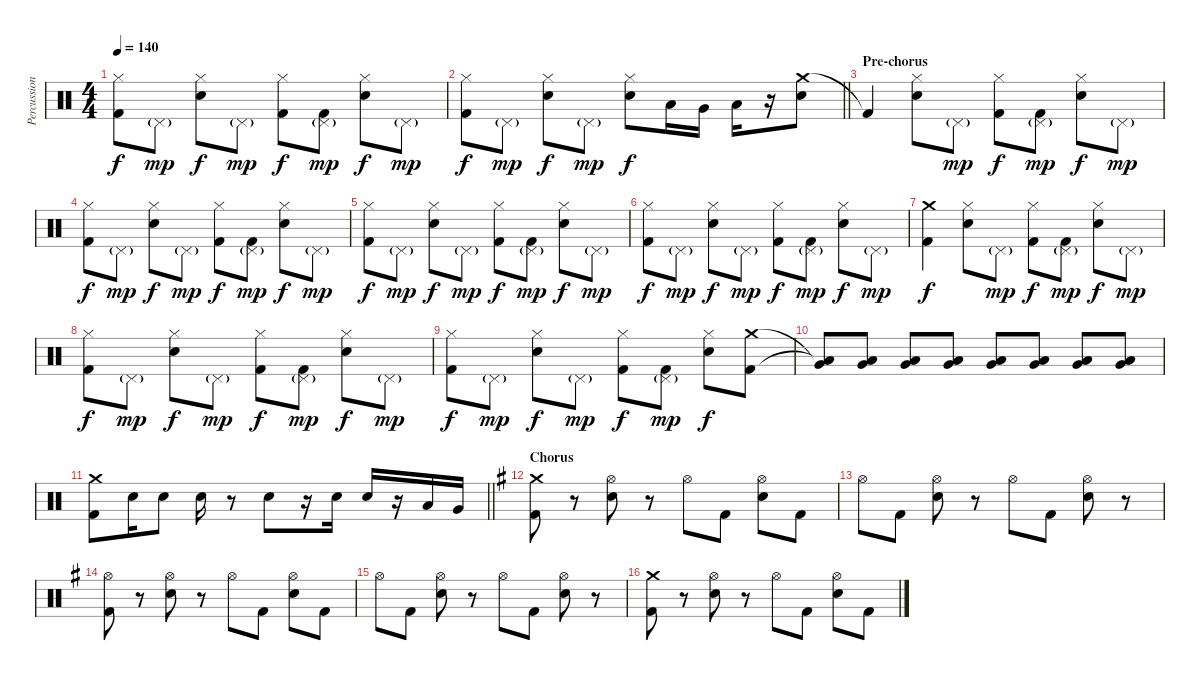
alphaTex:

\track ("Percussion" "Percussion") {instrument percussion}
\staff {score}
\articulation defaults
\ts (4 4)
\tempo 140
\clef neutral
\ks c
("Hi-Hat (closed)" "Kick (hit) 2").8{dy f} "Pedal Hi-Hat (hit)"{g}.8{dy mp} ("Hi-Hat (closed)" "Electric Snare (hit)").8{dy f} "Pedal Hi-Hat (hit)"{g}.8{dy mp} ("Hi-Hat (closed)" "Kick (hit) 2").8{dy f} ("Pedal Hi-Hat (hit)"{g} "Kick (hit) 2").8{dy mp} ("Hi-Hat (closed)" "Electric Snare (hit)").8{dy f} "Pedal Hi-Hat (hit)"{g}.8{dy mp} |
\barLineRight lightlight
("Hi-Hat (closed)" "Kick (hit) 2").8{dy f} "Pedal Hi-Hat (hit)"{g}.8{dy mp} ("Hi-Hat (closed)" "Electric Snare (hit)").8{dy f} "Pedal Hi-Hat (hit)"{g}.8{dy mp} ("Hi-Hat (closed)" "Electric Snare (hit)").8{dy f} "Low Tom (hit)".16 "Very Low Tom (hit)".16 "Low Tom (hit)".16 r.16 ("Crash medium (hit)" "Electric Snare (hit)").8 |
\section ("" "Pre-chorus")
"Kick (hit) 2"{t}.4 ("Hi-Hat (closed)" "Electric Snare (hit)").8 "Pedal Hi-Hat (hit)"{g}.8{dy mp} ("Hi-Hat (closed)" "Kick (hit) 2").8{dy f} ("Pedal Hi-Hat (hit)"{g} "Kick (hit) 2").8{dy mp} ("Hi-Hat (closed)" "Electric Snare (hit)").8{dy f} "Pedal Hi-Hat (hit)"{g}.8{dy mp} |
("Hi-Hat (closed)" "Kick (hit) 2").8{dy f} "Pedal Hi-Hat (hit)"{g}.8{dy mp} ("Hi-Hat (closed)" "Electric Snare (hit)").8{dy f} "Pedal Hi-Hat (hit)"{g}.8{dy mp} ("Hi-Hat (closed)" "Kick (hit) 2").8{dy f} ("Pedal Hi-Hat (hit)"{g} "Kick (hit) 2").8{dy mp} ("Hi-Hat (closed)" "Electric Snare (hit)").8{dy f} "Pedal Hi-Hat (hit)"{g}.8{dy mp} |
("Hi-Hat (closed)" "Kick (hit) 2").8{dy f} "Pedal Hi-Hat (hit)"{g}.8{dy mp} ("Hi-Hat (closed)" "Electric Snare (hit)").8{dy f} "Pedal Hi-Hat (hit)"{g}.8{dy mp} ("Hi-Hat (closed)" "Kick (hit) 2").8{dy f} ("Pedal Hi-Hat (hit)"{g} "Kick (hit) 2").8{dy mp} ("Hi-Hat (closed)" "Electric Snare (hit)").8{dy f} "Pedal Hi-Hat (hit)"{g}.8{dy mp} |
("Hi-Hat (closed)" "Kick (hit) 2").8{dy f} "Pedal Hi-Hat (hit)"{g}.8{dy mp} ("Hi-Hat (closed)" "Electric Snare (hit)").8{dy f} "Pedal Hi-Hat (hit)"{g}.8{dy mp} ("Hi-Hat (closed)" "Kick (hit) 2").8{dy f} ("Pedal Hi-Hat (hit)"{g} "Kick (hit) 2").8{dy mp} ("Hi-Hat (closed)" "Electric Snare (hit)").8{dy f} "Pedal Hi-Hat (hit)"{g}.8{dy mp} |
("Crash medium (hit)" "Kick (hit) 2").4{dy f} ("Hi-Hat (closed)" "Electric Snare (hit)").8 "Pedal Hi-Hat (hit)"{g}.8{dy mp} ("Hi-Hat (closed)" "Kick (hit) 2").8{dy f} ("Pedal Hi-Hat (hit)"{g} "Kick (hit) 2").8{dy mp} ("Hi-Hat (closed)" "Electric Snare (hit)").8{dy f} "Pedal Hi-Hat (hit)"{g}.8{dy mp} |
("Hi-Hat (closed)" "Kick (hit) 2").8{dy f} "Pedal Hi-Hat (hit)"{g}.8{dy mp} ("Hi-Hat (closed)" "Electric Snare (hit)").8{dy f} "Pedal Hi-Hat (hit)"{g}.8{dy mp} ("Hi-Hat (closed)" "Kick (hit) 2").8{dy f} ("Pedal Hi-Hat (hit)"{g} "Kick (hit) 2").8{dy mp} ("Hi-Hat (closed)" "Electric Snare (hit)").8{dy f} "Pedal Hi-Hat (hit)"{g}.8{dy mp} |
("Hi-Hat (closed)" "Kick (hit) 2").8{dy f} "Pedal Hi-Hat (hit)"{g}.8{dy mp} ("Hi-Hat (closed)" "Electric Snare (hit)").8{dy f} "Pedal Hi-Hat (hit)"{g}.8{dy mp} ("Hi-Hat (closed)" "Kick (hit) 2").8{dy f} ("Pedal Hi-Hat (hit)"{g} "Kick (hit) 2").8{dy mp} ("Hi-Hat (closed)" "Electric Snare (hit)").8{dy f} ("Crash medium (hit)" "Kick (hit) 2").8 |
("Very Low Tom (hit)"{t} "Low Floor Tom (hit)"{t}).8 ("Very Low Tom (hit)" "Low Floor Tom (hit)").8 ("Very Low Tom (hit)" "Low Floor Tom (hit)").8 ("Very Low Tom (hit)" "Low Floor Tom (hit)").8 ("Very Low Tom (hit)" "Low Floor Tom (hit)").8 ("Very Low Tom (hit)" "Low Floor Tom (hit)").8 ("Very Low Tom (hit)" "Low Floor Tom (hit)").8 ("Very Low Tom (hit)" "Low Floor Tom (hit)").8 |
\barLineRight lightlight
("Crash medium (hit)" "Kick (hit) 2").8 "Electric Snare (hit)".16 "Electric Snare (hit)".8 "Electric Snare (hit)".16 r.8 "Electric Snare (hit)".8 r.16 "Electric Snare (hit)".16 "Electric Snare (hit)".16 r.16 "Low Tom (hit)".16 "Very Low Tom (hit)".16 |
\section ("" "Chorus")
\ks g
("Crash medium (hit)" "Kick (hit) 2").8 r.8 ("Hi-Hat (open)" "Electric Snare (hit)").8 r.8 "Hi-Hat (open)".8 "Kick (hit) 2".8 ("Hi-Hat (open)" "Electric Snare (hit)").8 "Kick (hit) 2".8 |
"Hi-Hat (open)".8 "Kick (hit) 2".8 ("Hi-Hat (open)" "Electric Snare (hit)").8 r.8 "Hi-Hat (open)".8 "Kick (hit) 2".8 ("Hi-Hat (open)" "Electric Snare (hit)").8 r.8 |
("Hi-Hat (open)" "Kick (hit) 2").8 r.8 ("Hi-Hat (open)" "Electric Snare (hit)").8 r.8 "Hi-Hat (open)".8 "Kick (hit) 2".8 ("Hi-Hat (open)" "Electric Snare (hit)").8 "Kick (hit) 2".8 |
"Hi-Hat (open)".8 "Kick (hit) 2".8 ("Hi-Hat (open)" "Electric Snare (hit)").8 r.8 "Hi-Hat (open)".8 "Kick (hit) 2".8 ("Hi-Hat (open)" "Electric Snare (hit)").8 r.8 |
("Crash medium (hit)" "Kick (hit) 2").8 r.8 ("Hi-Hat (open)" "Electric Snare (hit)").8 r.8 "Hi-Hat (open)".8 "Kick (hit) 2".8 ("Hi-Hat (open)" "Electric Snare (hit)").8 "Kick (hit) 2".8
